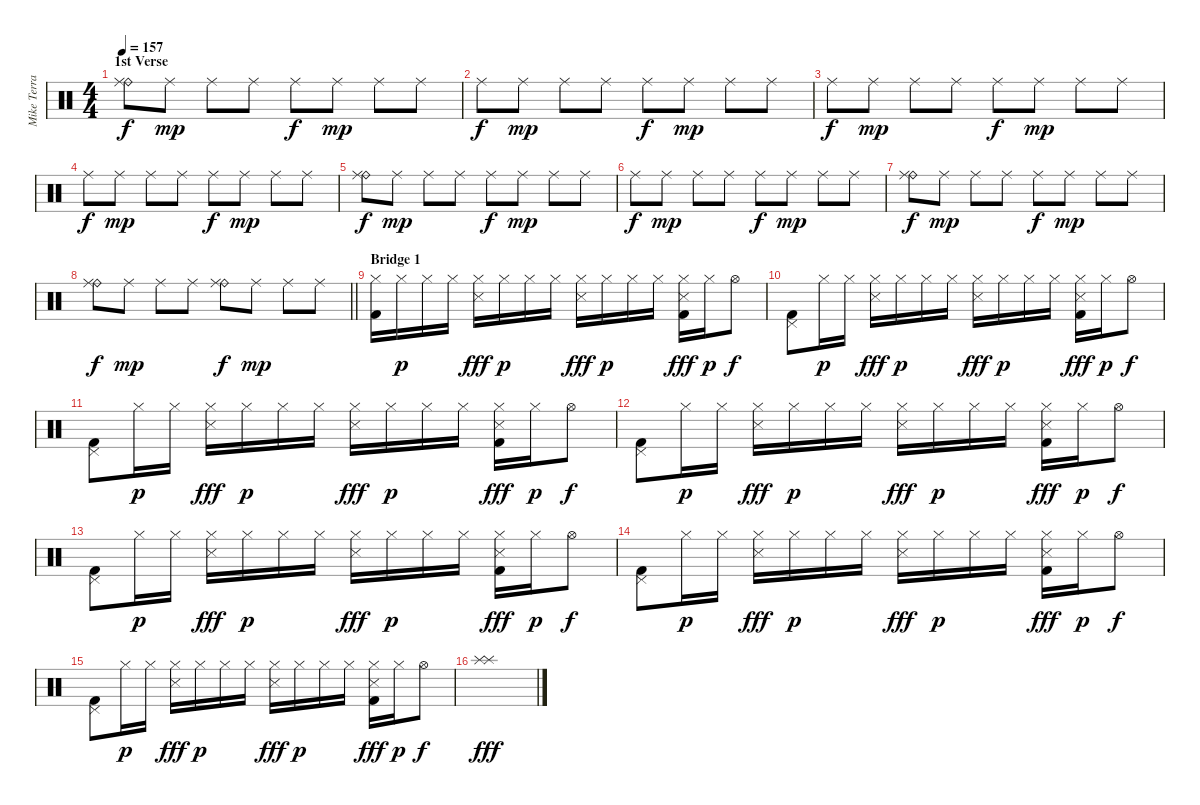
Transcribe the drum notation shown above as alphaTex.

\track ("Mike Terrana" "Mike Terra") {instrument percussion}
\staff {score}
\articulation defaults
\ts (4 4)
\section ("" "1st Verse")
\tempo 157
\clef neutral
\ks c
("Ride (bell)" "Ride (middle)").8{dy f} "Ride (middle)".8{dy mp} "Ride (middle)".8 "Ride (middle)".8 "Ride (middle)".8{dy f} "Ride (middle)".8{dy mp} "Ride (middle)".8 "Ride (middle)".8 |
"Ride (middle)".8{dy f} "Ride (middle)".8{dy mp} "Ride (middle)".8 "Ride (middle)".8 "Ride (middle)".8{dy f} "Ride (middle)".8{dy mp} "Ride (middle)".8 "Ride (middle)".8 |
"Ride (middle)".8{dy f} "Ride (middle)".8{dy mp} "Ride (middle)".8 "Ride (middle)".8 "Ride (middle)".8{dy f} "Ride (middle)".8{dy mp} "Ride (middle)".8 "Ride (middle)".8 |
"Ride (middle)".8{dy f} "Ride (middle)".8{dy mp} "Ride (middle)".8 "Ride (middle)".8 "Ride (middle)".8{dy f} "Ride (middle)".8{dy mp} "Ride (middle)".8 "Ride (middle)".8 |
("Ride (bell)" "Ride (middle)").8{dy f} "Ride (middle)".8{dy mp} "Ride (middle)".8 "Ride (middle)".8 "Ride (middle)".8{dy f} "Ride (middle)".8{dy mp} "Ride (middle)".8 "Ride (middle)".8 |
"Ride (middle)".8{dy f} "Ride (middle)".8{dy mp} "Ride (middle)".8 "Ride (middle)".8 "Ride (middle)".8{dy f} "Ride (middle)".8{dy mp} "Ride (middle)".8 "Ride (middle)".8 |
("Ride (bell)" "Ride (middle)").8{dy f} "Ride (middle)".8{dy mp} "Ride (middle)".8 "Ride (middle)".8 "Ride (middle)".8{dy f} "Ride (middle)".8{dy mp} "Ride (middle)".8 "Ride (middle)".8 |
\barLineRight lightlight
("Ride (bell)" "Ride (middle)").8{dy f} "Ride (middle)".8{dy mp} "Ride (middle)".8 "Ride (middle)".8 ("Ride (bell)" "Ride (middle)").8{dy f} "Ride (middle)".8{dy mp} "Ride (middle)".8 "Ride (middle)".8 |
\section ("" "Bridge 1")
("Hi-Hat (closed)" "Kick (hit) 2").16 "Hi-Hat (closed)".16{dy p} "Hi-Hat (closed)".16 "Hi-Hat (closed)".16 ("Hi-Hat (closed)" "Metronome (hit)").16{dy fff} "Hi-Hat (closed)".16{dy p} "Hi-Hat (closed)".16 "Hi-Hat (closed)".16 ("Hi-Hat (closed)" "Metronome (hit)").16{dy fff} "Hi-Hat (closed)".16{dy p} "Hi-Hat (closed)".16 "Hi-Hat (closed)".16 ("Hi-Hat (closed)" "Metronome (hit)" "Kick (hit) 2").16{dy fff} "Hi-Hat (closed)".16{dy p} "Hi-Hat (open)".8{dy f} |
("Pedal Hi-Hat (hit)" "Kick (hit) 2").8 "Hi-Hat (closed)".16{dy p} "Hi-Hat (closed)".16 ("Hi-Hat (closed)" "Metronome (hit)").16{dy fff} "Hi-Hat (closed)".16{dy p} "Hi-Hat (closed)".16 "Hi-Hat (closed)".16 ("Hi-Hat (closed)" "Metronome (hit)").16{dy fff} "Hi-Hat (closed)".16{dy p} "Hi-Hat (closed)".16 "Hi-Hat (closed)".16 ("Hi-Hat (closed)" "Metronome (hit)" "Kick (hit) 2").16{dy fff} "Hi-Hat (closed)".16{dy p} "Hi-Hat (open)".8{dy f} |
("Pedal Hi-Hat (hit)" "Kick (hit) 2").8 "Hi-Hat (closed)".16{dy p} "Hi-Hat (closed)".16 ("Hi-Hat (closed)" "Metronome (hit)").16{dy fff} "Hi-Hat (closed)".16{dy p} "Hi-Hat (closed)".16 "Hi-Hat (closed)".16 ("Hi-Hat (closed)" "Metronome (hit)").16{dy fff} "Hi-Hat (closed)".16{dy p} "Hi-Hat (closed)".16 "Hi-Hat (closed)".16 ("Hi-Hat (closed)" "Metronome (hit)" "Kick (hit) 2").16{dy fff} "Hi-Hat (closed)".16{dy p} "Hi-Hat (open)".8{dy f} |
("Pedal Hi-Hat (hit)" "Kick (hit) 2").8 "Hi-Hat (closed)".16{dy p} "Hi-Hat (closed)".16 ("Hi-Hat (closed)" "Metronome (hit)").16{dy fff} "Hi-Hat (closed)".16{dy p} "Hi-Hat (closed)".16 "Hi-Hat (closed)".16 ("Hi-Hat (closed)" "Metronome (hit)").16{dy fff} "Hi-Hat (closed)".16{dy p} "Hi-Hat (closed)".16 "Hi-Hat (closed)".16 ("Hi-Hat (closed)" "Metronome (hit)" "Kick (hit) 2").16{dy fff} "Hi-Hat (closed)".16{dy p} "Hi-Hat (open)".8{dy f} |
("Pedal Hi-Hat (hit)" "Kick (hit) 2").8 "Hi-Hat (closed)".16{dy p} "Hi-Hat (closed)".16 ("Hi-Hat (closed)" "Metronome (hit)").16{dy fff} "Hi-Hat (closed)".16{dy p} "Hi-Hat (closed)".16 "Hi-Hat (closed)".16 ("Hi-Hat (closed)" "Metronome (hit)").16{dy fff} "Hi-Hat (closed)".16{dy p} "Hi-Hat (closed)".16 "Hi-Hat (closed)".16 ("Hi-Hat (closed)" "Metronome (hit)" "Kick (hit) 2").16{dy fff} "Hi-Hat (closed)".16{dy p} "Hi-Hat (open)".8{dy f} |
("Pedal Hi-Hat (hit)" "Kick (hit) 2").8 "Hi-Hat (closed)".16{dy p} "Hi-Hat (closed)".16 ("Hi-Hat (closed)" "Metronome (hit)").16{dy fff} "Hi-Hat (closed)".16{dy p} "Hi-Hat (closed)".16 "Hi-Hat (closed)".16 ("Hi-Hat (closed)" "Metronome (hit)").16{dy fff} "Hi-Hat (closed)".16{dy p} "Hi-Hat (closed)".16 "Hi-Hat (closed)".16 ("Hi-Hat (closed)" "Metronome (hit)" "Kick (hit) 2").16{dy fff} "Hi-Hat (closed)".16{dy p} "Hi-Hat (open)".8{dy f} |
("Pedal Hi-Hat (hit)" "Kick (hit) 2").8 "Hi-Hat (closed)".16{dy p} "Hi-Hat (closed)".16 ("Hi-Hat (closed)" "Metronome (hit)").16{dy fff} "Hi-Hat (closed)".16{dy p} "Hi-Hat (closed)".16 "Hi-Hat (closed)".16 ("Hi-Hat (closed)" "Metronome (hit)").16{dy fff} "Hi-Hat (closed)".16{dy p} "Hi-Hat (closed)".16 "Hi-Hat (closed)".16 ("Hi-Hat (closed)" "Metronome (hit)" "Kick (hit) 2").16{dy fff} "Hi-Hat (closed)".16{dy p} "Hi-Hat (open)".8{dy f} |
("Splash (hit)" "Splash (hit)").1{dy fff}
